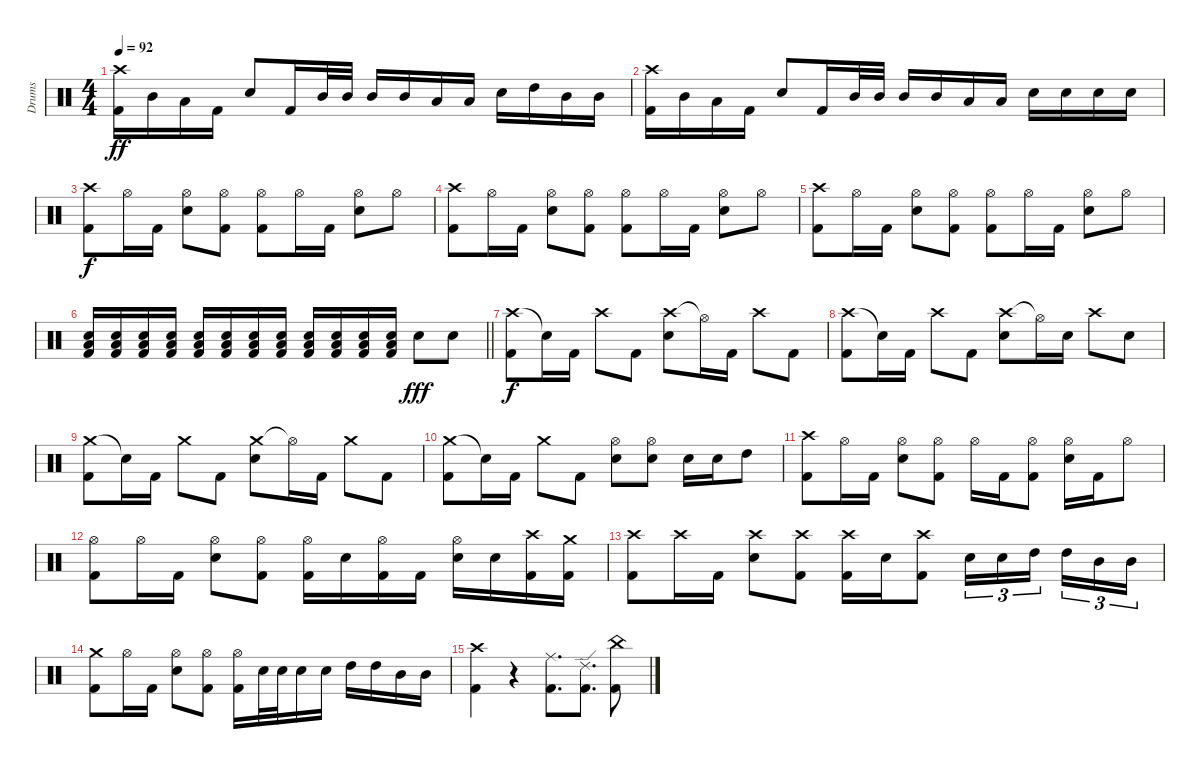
\track ("Drums" "Drums") {instrument percussion}
\staff {score}
\articulation defaults
\ts (4 4)
\tempo 92
\clef neutral
\ks c
("Crash high (hit)" "Kick (hit) 2").16{dy ff} "Mid Tom (hit)".16 "Low Floor Tom (hit)".16 "Kick (hit) 2".16 "Snare (hit) 2".8 "Kick (hit) 2".16 "Mid Tom (hit)".32 "Mid Tom (hit)".32 "Mid Tom (hit)".16 "Mid Tom (hit)".16 "Low Floor Tom (hit)".16 "Low Floor Tom (hit)".16 "Snare (hit) 2".16 "High Tom (hit)".16 "Mid Tom (hit)".16 "Mid Tom (hit)".16 |
("Crash high (hit)" "Kick (hit) 2").16 "Mid Tom (hit)".16 "Low Floor Tom (hit)".16 "Kick (hit) 2".16 "Snare (hit) 2".8 "Kick (hit) 2".16 "Mid Tom (hit)".32 "Mid Tom (hit)".32 "Mid Tom (hit)".16 "Mid Tom (hit)".16 "Low Floor Tom (hit)".16 "Low Floor Tom (hit)".16 "Snare (hit) 2".16 "Snare (hit) 2".16 "Snare (hit) 2".16 "Snare (hit) 2".16 |
("Crash high (hit)" "Kick (hit) 2").8{dy f} "Hi-Hat (open)".16 "Kick (hit) 2".16 ("Hi-Hat (open)" "Snare (hit) 2").8 ("Hi-Hat (open)" "Kick (hit) 2").8 ("Hi-Hat (open)" "Kick (hit) 2").8 "Hi-Hat (open)".16 "Kick (hit) 2".16 ("Hi-Hat (open)" "Snare (hit) 2").8 "Hi-Hat (open)".8 |
("Crash high (hit)" "Kick (hit) 2").8 "Hi-Hat (open)".16 "Kick (hit) 2".16 ("Hi-Hat (open)" "Snare (hit) 2").8 ("Hi-Hat (open)" "Kick (hit) 2").8 ("Hi-Hat (open)" "Kick (hit) 2").8 "Hi-Hat (open)".16 "Kick (hit) 2".16 ("Hi-Hat (open)" "Snare (hit) 2").8 "Hi-Hat (open)".8 |
("Crash high (hit)" "Kick (hit) 2").8 "Hi-Hat (open)".16 "Kick (hit) 2".16 ("Hi-Hat (open)" "Snare (hit) 2").8 ("Hi-Hat (open)" "Kick (hit) 2").8 ("Hi-Hat (open)" "Kick (hit) 2").8 "Hi-Hat (open)".16 "Kick (hit) 2".16 ("Hi-Hat (open)" "Snare (hit) 2").8 "Hi-Hat (open)".8 |
\barLineRight lightlight
("Snare (hit) 2" "Low Floor Tom (hit)" "Kick (hit) 2").16 ("Snare (hit) 2" "Low Floor Tom (hit)" "Kick (hit) 2").16 ("Snare (hit) 2" "Low Floor Tom (hit)" "Kick (hit) 2").16 ("Snare (hit) 2" "Low Floor Tom (hit)" "Kick (hit) 2").16 ("Snare (hit) 2" "Low Floor Tom (hit)" "Kick (hit) 2").16 ("Snare (hit) 2" "Low Floor Tom (hit)" "Kick (hit) 2").16 ("Snare (hit) 2" "Low Floor Tom (hit)" "Kick (hit) 2").16 ("Snare (hit) 2" "Low Floor Tom (hit)" "Kick (hit) 2").16 ("Snare (hit) 2" "Low Floor Tom (hit)" "Kick (hit) 2").16 ("Snare (hit) 2" "Low Floor Tom (hit)" "Kick (hit) 2").16 ("Snare (hit) 2" "Low Floor Tom (hit)" "Kick (hit) 2").16 ("Snare (hit) 2" "Low Floor Tom (hit)" "Kick (hit) 2").16 "Snare (hit) 2".8{dy fff} "Snare (hit) 2".8 |
("Crash high (hit)" "Kick (hit) 2").8{dy f} "Snare (hit)"{t}.16 "Kick (hit) 2".16 "Crash high (hit)".8 "Kick (hit) 2".8 ("Crash high (hit)" "Snare (hit) 2").8 "Hi-Hat (open)"{t}.16 "Kick (hit) 2".16 "Crash high (hit)".8 "Kick (hit) 2".8 |
("Crash high (hit)" "Kick (hit) 2").8 "Snare (hit)"{t}.16 "Kick (hit) 2".16 "Crash high (hit)".8 "Kick (hit) 2".8 ("Crash high (hit)" "Snare (hit) 2").8 "Hi-Hat (open)"{t}.16 "Snare (hit) 2".16 "Crash high (hit)".8 "Snare (hit) 2".8 |
("Crash medium (hit)" "Kick (hit) 2").8 "Snare (hit)"{t}.16 "Kick (hit) 2".16 "Crash medium (hit)".8 "Kick (hit) 2".8 ("Crash medium (hit)" "Snare (hit) 2").8 "Hi-Hat (open)"{t}.16 "Kick (hit) 2".16 "Crash medium (hit)".8 "Kick (hit) 2".8 |
("Crash medium (hit)" "Kick (hit) 2").8 "Snare (hit)"{t}.16 "Kick (hit) 2".16 "Crash medium (hit)".8 "Kick (hit) 2".8 ("Hi-Hat (open)" "Snare (hit) 2").8 ("Hi-Hat (open)" "Snare (hit) 2").8 "Snare (hit) 2".16 "Snare (hit) 2".16 "High Tom (hit)".8 |
("Crash high (hit)" "Kick (hit) 2").8 "Hi-Hat (open)".16 "Kick (hit) 2".16 ("Hi-Hat (open)" "Snare (hit) 2").8 ("Hi-Hat (open)" "Kick (hit) 2").8 "Hi-Hat (open)".16 "Kick (hit) 2".16 ("Hi-Hat (open)" "Kick (hit) 2").8 ("Hi-Hat (open)" "Snare (hit) 2").16 "Kick (hit) 2".16 "Hi-Hat (open)".8 |
("Hi-Hat (open)" "Kick (hit) 2").8 "Hi-Hat (open)".16 "Kick (hit) 2".16 ("Hi-Hat (open)" "Snare (hit) 2").8 ("Hi-Hat (open)" "Kick (hit) 2").8 ("Hi-Hat (open)" "Kick (hit) 2").16 "Snare (hit) 2".16 ("Hi-Hat (open)" "Kick (hit) 2").16 "Kick (hit) 2".16 ("Hi-Hat (open)" "Snare (hit) 2").16 "Snare (hit) 2".16 ("Crash high (hit)" "Kick (hit) 2").16 ("Crash medium (hit)" "Kick (hit) 2").16 |
("Crash high (hit)" "Kick (hit) 2").8 "Crash high (hit)".16 "Kick (hit) 2".16 ("Crash high (hit)" "Snare (hit) 2").8 ("Crash high (hit)" "Kick (hit) 2").8 ("Crash high (hit)" "Kick (hit) 2").16 "Snare (hit) 2".16 ("Crash high (hit)" "Kick (hit) 2").8 "Snare (hit) 2".16{tu (3 2)} "Snare (hit) 2".16{tu (3 2)} "High Tom (hit)".16{tu (3 2) beam splitsecondary} "High Tom (hit)".16{tu (3 2)} "Mid Tom (hit)".16{tu (3 2)} "Mid Tom (hit)".16{tu (3 2)} |
("Crash medium (hit)" "Kick (hit) 2").8 "Hi-Hat (open)".16 "Kick (hit) 2".16 ("Hi-Hat (open)" "Snare (hit) 2").8 ("Hi-Hat (open)" "Kick (hit) 2").8 ("Hi-Hat (open)" "Kick (hit) 2").16 "Snare (hit) 2".32 "Snare (hit) 2".32 "Snare (hit) 2".16 "Snare (hit) 2".16 "High Tom (hit)".16 "High Tom (hit)".16 "Mid Tom (hit)".16 "Mid Tom (hit)".16 |
("Crash high (hit)" "Kick (hit) 2").4 r.4 ("Ride (middle)" "Kick (hit) 2").8{d} ("Ride (edge) 2" "Kick (hit) 2").8{d} ("China (hit)" "Kick (hit) 2").8
